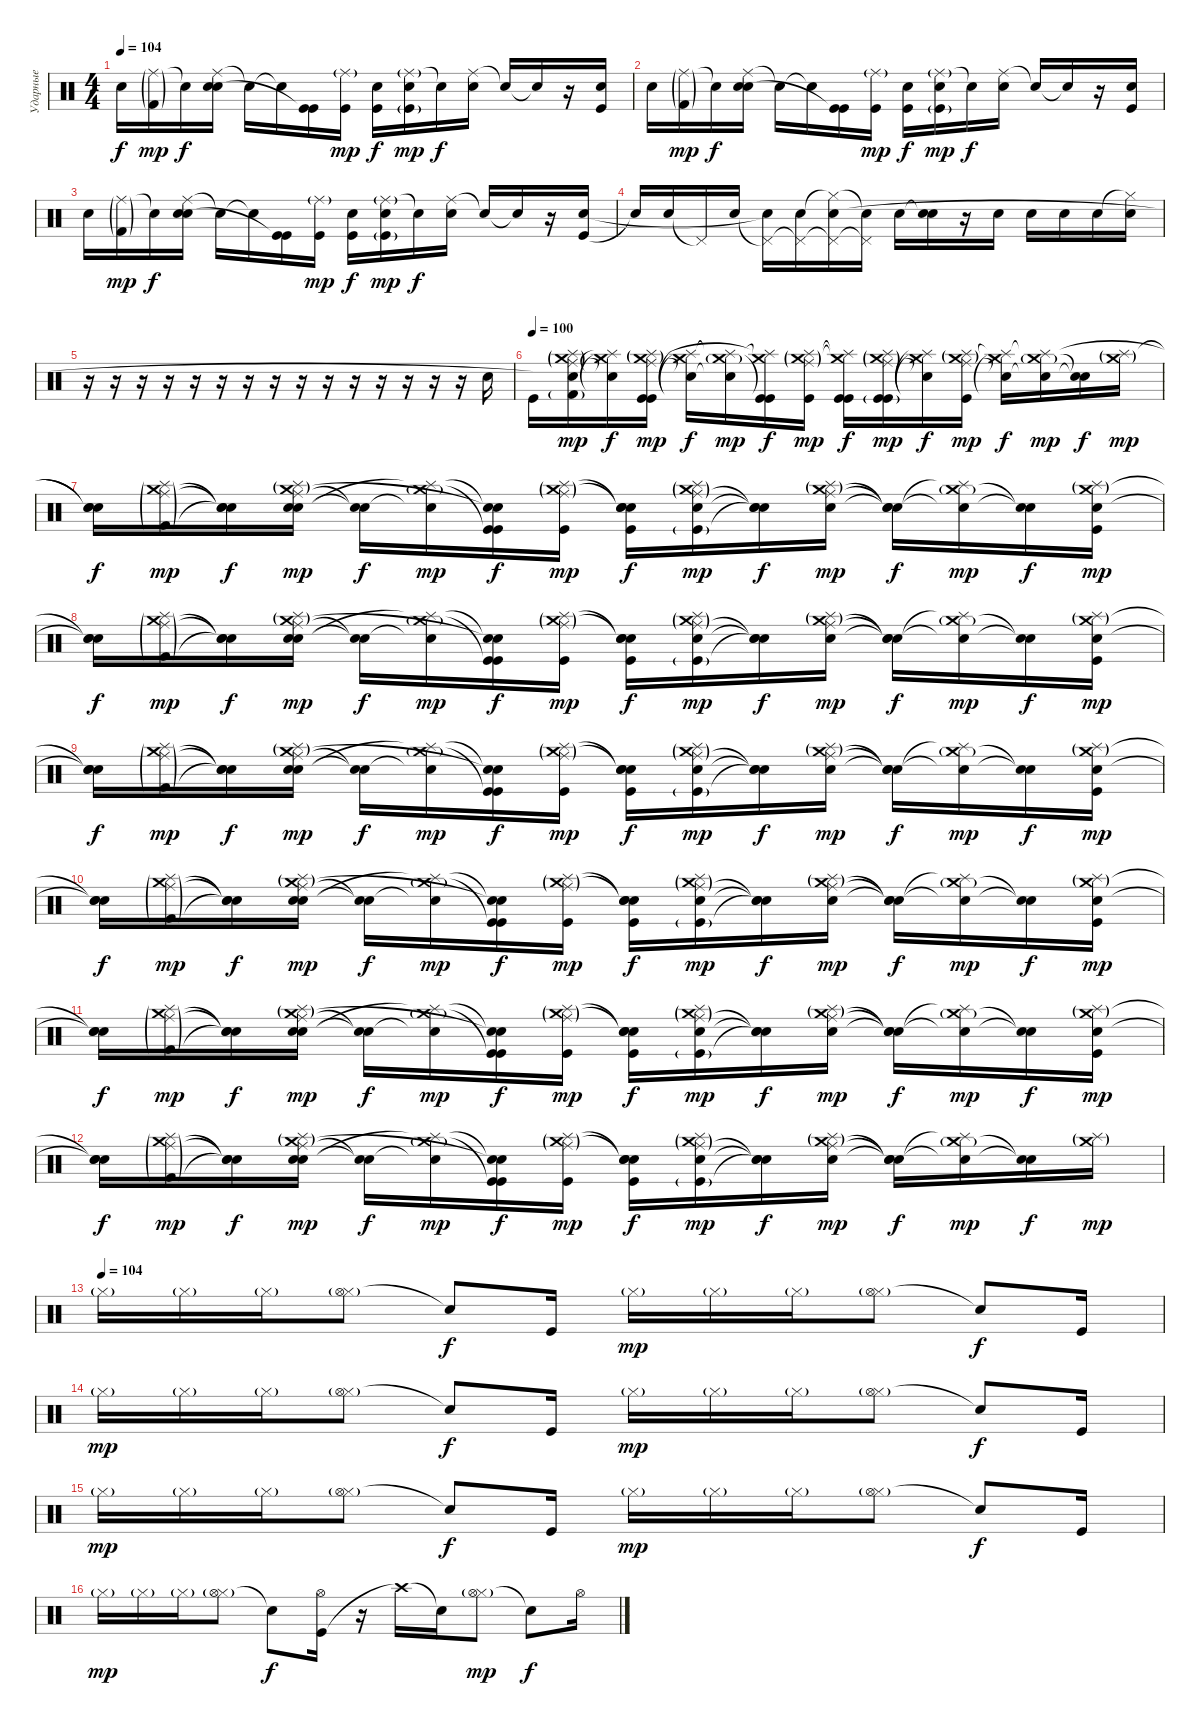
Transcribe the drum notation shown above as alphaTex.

\track ("Ударные" "Ударные") {instrument percussion}
\staff {score}
\articulation defaults
\ts (4 4)
\tempo 104
\clef neutral
\ks c "Snare (hit) 2".16{dy f}
("Ride (middle)"{g} "Kick (hit) 2"{g}).16{dy mp} "Electric Snare (hit)"{t}.16{dy f} ("Ride (middle)" "Snare (hit) 2" "Snare (hit) 2").16 "Electric Snare (hit)"{t}.16 "Electric Snare (hit)"{t}.16 ("Kick (hit)" "Kick (hit)"{t}).16 ("Ride (middle)"{g} "Kick (hit)").16{dy mp} ("Snare (hit) 2" "Kick (hit)").16{dy f} ("Ride (middle)"{g} "Snare (hit) 2" "Kick (hit)"{g}).16{dy mp} "Electric Snare (hit)"{t}.16{dy f} ("Ride (middle)" "Snare (hit) 2").16 "Electric Snare (hit)"{t}.16 "Electric Snare (hit)"{t}.16 r.16 ("Kick (hit)" "Snare (hit) 2").16 |
"Snare (hit) 2".16 ("Ride (middle)"{g} "Kick (hit) 2"{g}).16{dy mp} "Electric Snare (hit)"{t}.16{dy f} ("Ride (middle)" "Snare (hit) 2" "Snare (hit) 2").16 "Electric Snare (hit)"{t}.16 "Electric Snare (hit)"{t}.16 ("Kick (hit)" "Kick (hit)"{t}).16 ("Ride (middle)"{g} "Kick (hit)").16{dy mp} ("Snare (hit) 2" "Kick (hit)").16{dy f} ("Ride (middle)"{g} "Snare (hit) 2" "Kick (hit)"{g}).16{dy mp} "Electric Snare (hit)"{t}.16{dy f} ("Ride (middle)" "Snare (hit) 2").16 "Electric Snare (hit)"{t}.16 "Electric Snare (hit)"{t}.16 r.16 ("Kick (hit)" "Snare (hit) 2").16 |
"Snare (hit) 2".16 ("Ride (middle)"{g} "Kick (hit) 2"{g}).16{dy mp} "Electric Snare (hit)"{t}.16{dy f} ("Ride (middle)" "Snare (hit) 2" "Snare (hit) 2").16 "Electric Snare (hit)"{t}.16 "Electric Snare (hit)"{t}.16 ("Kick (hit)" "Kick (hit)"{t}).16 ("Ride (middle)"{g} "Kick (hit)").16{dy mp} ("Snare (hit) 2" "Kick (hit)").16{dy f} ("Ride (middle)"{g} "Snare (hit) 2" "Kick (hit)"{g}).16{dy mp} "Electric Snare (hit)"{t}.16{dy f} ("Ride (middle)" "Snare (hit) 2").16 "Electric Snare (hit)"{t}.16 "Electric Snare (hit)"{t}.16 r.16 ("Kick (hit)" "Snare (hit) 2").16 |
"Snare (hit)"{t}.16 "Snare (hit) 2".16 "Pedal Hi-Hat (hit)"{t}.16 "Snare (hit) 2".16 ("Pedal Hi-Hat (hit)"{t} "Snare (hit) 2"{t}).16 ("Pedal Hi-Hat (hit)"{t} "Electric Snare (hit)").16 ("Pedal Hi-Hat (hit)"{t} "Hi-Hat (closed)"{t} "Snare (hit) 2").16 ("Pedal Hi-Hat (hit)"{t} "Snare (hit)"{t}).16 "Electric Snare (hit)".16 ("Snare (hit)"{t} "Snare (hit) 2").16 r.16 "Electric Snare (hit)".16 "Electric Snare (hit)".16 "Snare (hit) 2".16 "Snare (hit) 2".16 ("Hi-Hat (closed)"{t} "Snare (hit) 2").16 |
r.16 r.16 r.16 r.16 r.16 r.16 r.16 r.16 r.16 r.16 r.16 r.16 r.16 r.16 r.16 "Snare (hit) 2".16 |
\tempo (100)
"Kick (hit)".16 ("Ride (middle)"{g} "Kick (hit) 2"{g} "Snare (hit)"{t} "Crash medium (hit)"{g} "Splash (hit)"{g}).16{dy mp} ("Electric Snare (hit)"{t} "Crash medium (hit)"{t} "Splash (hit)"{t}).16{dy f} ("Ride (middle)" "Kick (hit)" "Kick (hit)" "Crash medium (hit)"{g} "Splash (hit)"{g}).16{dy mp} ("Electric Snare (hit)"{t} "Crash medium (hit)"{t} "Splash (hit)"{t}).16{dy f} ("Electric Snare (hit)"{t} "Crash medium (hit)"{g} "Splash (hit)"{t}).16{dy mp} ("Kick (hit)" "Kick (hit)"{t} "Crash medium (hit)"{t} "Splash (hit)"{t}).16{dy f} ("Ride (middle)"{g} "Kick (hit)" "Crash medium (hit)"{g} "Splash (hit)"{g}).16{dy mp} ("Kick (hit)" "Kick (hit)" "Crash medium (hit)"{t} "Splash (hit)"{t}).16{dy f} ("Ride (middle)"{g} "Kick (hit)" "Kick (hit)"{g} "Crash medium (hit)"{g} "Splash (hit)"{g}).16{dy mp} ("Electric Snare (hit)"{t} "Crash medium (hit)"{t} "Splash (hit)"{t}).16{dy f} ("Ride (middle)" "Kick (hit)" "Crash medium (hit)"{g} "Splash (hit)"{g}).16{dy mp} ("Electric Snare (hit)"{t} "Crash medium (hit)"{t} "Splash (hit)"{t}).16{dy f} ("Electric Snare (hit)"{t} "Crash medium (hit)"{g} "Splash (hit)"{t}).16{dy mp} ("Snare (hit)"{t} "Snare (hit)"{t}).16{dy f} ("Crash medium (hit)"{g} "Splash (hit)"{g}).16{dy mp} |
("Snare (hit) 2" "Snare (hit)"{t} "Snare (hit)"{t}).16{dy f} ("Ride (middle)"{g} "Kick (hit) 2"{g} "Crash medium (hit)"{g} "Splash (hit)"{g}).16{dy mp} ("Electric Snare (hit)"{t} "Snare (hit)"{t} "Snare (hit)"{t}).16{dy f} ("Ride (middle)" "Snare (hit) 2" "Snare (hit) 2" "Crash medium (hit)"{g} "Splash (hit)"{g}).16{dy mp} ("Electric Snare (hit)"{t} "Snare (hit)"{t}).16{dy f} ("Electric Snare (hit)"{t} "Crash medium (hit)"{g} "Splash (hit)"{t}).16{dy mp} ("Kick (hit)" "Kick (hit)"{t} "Snare (hit)"{t} "Snare (hit)"{t}).16{dy f} ("Ride (middle)"{g} "Kick (hit)" "Crash medium (hit)"{g} "Splash (hit)"{g}).16{dy mp} ("Snare (hit) 2" "Kick (hit)" "Snare (hit)"{t} "Snare (hit)"{t}).16{dy f} ("Ride (middle)"{g} "Snare (hit) 2" "Kick (hit)"{g} "Crash medium (hit)"{g} "Splash (hit)"{g}).16{dy mp} ("Electric Snare (hit)"{t} "Snare (hit)"{t} "Snare (hit)"{t}).16{dy f} ("Ride (middle)" "Snare (hit) 2" "Crash medium (hit)"{g} "Splash (hit)"{g}).16{dy mp} ("Electric Snare (hit)"{t} "Snare (hit)"{t} "Snare (hit)"{t}).16{dy f} ("Electric Snare (hit)"{t} "Crash medium (hit)"{g} "Splash (hit)"{t}).16{dy mp} ("Snare (hit)"{t} "Snare (hit)"{t}).16{dy f} ("Kick (hit)" "Snare (hit) 2" "Crash medium (hit)"{g} "Splash (hit)"{g}).16{dy mp} |
("Snare (hit) 2" "Snare (hit)"{t} "Snare (hit)"{t}).16{dy f} ("Ride (middle)"{g} "Kick (hit) 2"{g} "Crash medium (hit)"{g} "Splash (hit)"{g}).16{dy mp} ("Electric Snare (hit)"{t} "Snare (hit)"{t} "Snare (hit)"{t}).16{dy f} ("Ride (middle)" "Snare (hit) 2" "Snare (hit) 2" "Crash medium (hit)"{g} "Splash (hit)"{g}).16{dy mp} ("Electric Snare (hit)"{t} "Snare (hit)"{t}).16{dy f} ("Electric Snare (hit)"{t} "Crash medium (hit)"{g} "Splash (hit)"{t}).16{dy mp} ("Kick (hit)" "Kick (hit)"{t} "Snare (hit)"{t} "Snare (hit)"{t}).16{dy f} ("Ride (middle)"{g} "Kick (hit)" "Crash medium (hit)"{g} "Splash (hit)"{g}).16{dy mp} ("Snare (hit) 2" "Kick (hit)" "Snare (hit)"{t} "Snare (hit)"{t}).16{dy f} ("Ride (middle)"{g} "Snare (hit) 2" "Kick (hit)"{g} "Crash medium (hit)"{g} "Splash (hit)"{g}).16{dy mp} ("Electric Snare (hit)"{t} "Snare (hit)"{t} "Snare (hit)"{t}).16{dy f} ("Ride (middle)" "Snare (hit) 2" "Crash medium (hit)"{g} "Splash (hit)"{g}).16{dy mp} ("Electric Snare (hit)"{t} "Snare (hit)"{t} "Snare (hit)"{t}).16{dy f} ("Electric Snare (hit)"{t} "Crash medium (hit)"{g} "Splash (hit)"{t}).16{dy mp} ("Snare (hit)"{t} "Snare (hit)"{t}).16{dy f} ("Kick (hit)" "Snare (hit) 2" "Crash medium (hit)"{g} "Splash (hit)"{g}).16{dy mp} |
("Snare (hit) 2" "Snare (hit)"{t} "Snare (hit)"{t}).16{dy f} ("Ride (middle)"{g} "Kick (hit) 2"{g} "Crash medium (hit)"{g} "Splash (hit)"{g}).16{dy mp} ("Electric Snare (hit)"{t} "Snare (hit)"{t} "Snare (hit)"{t}).16{dy f} ("Ride (middle)" "Snare (hit) 2" "Snare (hit) 2" "Crash medium (hit)"{g} "Splash (hit)"{g}).16{dy mp} ("Electric Snare (hit)"{t} "Snare (hit)"{t}).16{dy f} ("Electric Snare (hit)"{t} "Crash medium (hit)"{g} "Splash (hit)"{t}).16{dy mp} ("Kick (hit)" "Kick (hit)"{t} "Snare (hit)"{t} "Snare (hit)"{t}).16{dy f} ("Ride (middle)"{g} "Kick (hit)" "Crash medium (hit)"{g} "Splash (hit)"{g}).16{dy mp} ("Snare (hit) 2" "Kick (hit)" "Snare (hit)"{t} "Snare (hit)"{t}).16{dy f} ("Ride (middle)"{g} "Snare (hit) 2" "Kick (hit)"{g} "Crash medium (hit)"{g} "Splash (hit)"{g}).16{dy mp} ("Electric Snare (hit)"{t} "Snare (hit)"{t} "Snare (hit)"{t}).16{dy f} ("Ride (middle)" "Snare (hit) 2" "Crash medium (hit)"{g} "Splash (hit)"{g}).16{dy mp} ("Electric Snare (hit)"{t} "Snare (hit)"{t} "Snare (hit)"{t}).16{dy f} ("Electric Snare (hit)"{t} "Crash medium (hit)"{g} "Splash (hit)"{t}).16{dy mp} ("Snare (hit)"{t} "Snare (hit)"{t}).16{dy f} ("Kick (hit)" "Snare (hit) 2" "Crash medium (hit)"{g} "Splash (hit)"{g}).16{dy mp} |
("Snare (hit) 2" "Snare (hit)"{t} "Snare (hit)"{t}).16{dy f} ("Ride (middle)"{g} "Kick (hit) 2"{g} "Crash medium (hit)"{g} "Splash (hit)"{g}).16{dy mp} ("Electric Snare (hit)"{t} "Snare (hit)"{t} "Snare (hit)"{t}).16{dy f} ("Ride (middle)" "Snare (hit) 2" "Snare (hit) 2" "Crash medium (hit)"{g} "Splash (hit)"{g}).16{dy mp} ("Electric Snare (hit)"{t} "Snare (hit)"{t}).16{dy f} ("Electric Snare (hit)"{t} "Crash medium (hit)"{g} "Splash (hit)"{t}).16{dy mp} ("Kick (hit)" "Kick (hit)"{t} "Snare (hit)"{t} "Snare (hit)"{t}).16{dy f} ("Ride (middle)"{g} "Kick (hit)" "Crash medium (hit)"{g} "Splash (hit)"{g}).16{dy mp} ("Snare (hit) 2" "Kick (hit)" "Snare (hit)"{t} "Snare (hit)"{t}).16{dy f} ("Ride (middle)"{g} "Snare (hit) 2" "Kick (hit)"{g} "Crash medium (hit)"{g} "Splash (hit)"{g}).16{dy mp} ("Electric Snare (hit)"{t} "Snare (hit)"{t} "Snare (hit)"{t}).16{dy f} ("Ride (middle)" "Snare (hit) 2" "Crash medium (hit)"{g} "Splash (hit)"{g}).16{dy mp} ("Electric Snare (hit)"{t} "Snare (hit)"{t} "Snare (hit)"{t}).16{dy f} ("Electric Snare (hit)"{t} "Crash medium (hit)"{g} "Splash (hit)"{t}).16{dy mp} ("Snare (hit)"{t} "Snare (hit)"{t}).16{dy f} ("Kick (hit)" "Snare (hit) 2" "Crash medium (hit)"{g} "Splash (hit)"{g}).16{dy mp} |
("Snare (hit) 2" "Snare (hit)"{t} "Snare (hit)"{t}).16{dy f} ("Ride (middle)"{g} "Kick (hit) 2"{g} "Crash medium (hit)"{g} "Splash (hit)"{g}).16{dy mp} ("Electric Snare (hit)"{t} "Snare (hit)"{t} "Snare (hit)"{t}).16{dy f} ("Ride (middle)" "Snare (hit) 2" "Snare (hit) 2" "Crash medium (hit)"{g} "Splash (hit)"{g}).16{dy mp} ("Electric Snare (hit)"{t} "Snare (hit)"{t}).16{dy f} ("Electric Snare (hit)"{t} "Crash medium (hit)"{g} "Splash (hit)"{t}).16{dy mp} ("Kick (hit)" "Kick (hit)"{t} "Snare (hit)"{t} "Snare (hit)"{t}).16{dy f} ("Ride (middle)"{g} "Kick (hit)" "Crash medium (hit)"{g} "Splash (hit)"{g}).16{dy mp} ("Snare (hit) 2" "Kick (hit)" "Snare (hit)"{t} "Snare (hit)"{t}).16{dy f} ("Ride (middle)"{g} "Snare (hit) 2" "Kick (hit)"{g} "Crash medium (hit)"{g} "Splash (hit)"{g}).16{dy mp} ("Electric Snare (hit)"{t} "Snare (hit)"{t} "Snare (hit)"{t}).16{dy f} ("Ride (middle)" "Snare (hit) 2" "Crash medium (hit)"{g} "Splash (hit)"{g}).16{dy mp} ("Electric Snare (hit)"{t} "Snare (hit)"{t} "Snare (hit)"{t}).16{dy f} ("Electric Snare (hit)"{t} "Crash medium (hit)"{g} "Splash (hit)"{t}).16{dy mp} ("Snare (hit)"{t} "Snare (hit)"{t}).16{dy f} ("Kick (hit)" "Snare (hit) 2" "Crash medium (hit)"{g} "Splash (hit)"{g}).16{dy mp} |
("Snare (hit) 2" "Snare (hit)"{t} "Snare (hit)"{t}).16{dy f} ("Ride (middle)"{g} "Kick (hit) 2"{g} "Crash medium (hit)"{g} "Splash (hit)"{g}).16{dy mp} ("Electric Snare (hit)"{t} "Snare (hit)"{t} "Snare (hit)"{t}).16{dy f} ("Ride (middle)" "Snare (hit) 2" "Snare (hit) 2" "Crash medium (hit)"{g} "Splash (hit)"{g}).16{dy mp} ("Electric Snare (hit)"{t} "Snare (hit)"{t}).16{dy f} ("Electric Snare (hit)"{t} "Crash medium (hit)"{g} "Splash (hit)"{t}).16{dy mp} ("Kick (hit)" "Kick (hit)"{t} "Snare (hit)"{t} "Snare (hit)"{t}).16{dy f} ("Ride (middle)"{g} "Kick (hit)" "Crash medium (hit)"{g} "Splash (hit)"{g}).16{dy mp} ("Snare (hit) 2" "Kick (hit)" "Snare (hit)"{t} "Snare (hit)"{t}).16{dy f} ("Ride (middle)"{g} "Snare (hit) 2" "Kick (hit)"{g} "Crash medium (hit)"{g} "Splash (hit)"{g}).16{dy mp} ("Electric Snare (hit)"{t} "Snare (hit)"{t} "Snare (hit)"{t}).16{dy f} ("Ride (middle)" "Snare (hit) 2" "Crash medium (hit)"{g} "Splash (hit)"{g}).16{dy mp} ("Electric Snare (hit)"{t} "Snare (hit)"{t} "Snare (hit)"{t}).16{dy f} ("Electric Snare (hit)"{t} "Crash medium (hit)"{g} "Splash (hit)"{t}).16{dy mp} ("Snare (hit)"{t} "Snare (hit)"{t}).16{dy f} ("Crash medium (hit)"{g} "Splash (hit)"{g}).16{dy mp} |
\tempo (104)
"Hi-Hat (closed)"{g}.16 "Hi-Hat (closed)"{g}.16 "Hi-Hat (closed)"{g}.16 ("Hi-Hat (closed)"{g} "Hi-Hat (open)").8 "Snare (hit)"{t}.8{dy f} "Kick (hit)".16 "Hi-Hat (closed)"{g}.16{dy mp} "Hi-Hat (closed)"{g}.16 "Hi-Hat (closed)"{g}.16 ("Hi-Hat (closed)"{g} "Hi-Hat (open)").8 "Snare (hit)"{t}.8{dy f} "Kick (hit)".16 |
"Hi-Hat (closed)"{g}.16{dy mp} "Hi-Hat (closed)"{g}.16 "Hi-Hat (closed)"{g}.16 ("Hi-Hat (closed)"{g} "Hi-Hat (open)").8 "Snare (hit)"{t}.8{dy f} "Kick (hit)".16 "Hi-Hat (closed)"{g}.16{dy mp} "Hi-Hat (closed)"{g}.16 "Hi-Hat (closed)"{g}.16 ("Hi-Hat (closed)"{g} "Hi-Hat (open)").8 "Snare (hit)"{t}.8{dy f} "Kick (hit)".16 |
"Hi-Hat (closed)"{g}.16{dy mp} "Hi-Hat (closed)"{g}.16 "Hi-Hat (closed)"{g}.16 ("Hi-Hat (closed)"{g} "Hi-Hat (open)").8 "Snare (hit)"{t}.8{dy f} "Kick (hit)".16 "Hi-Hat (closed)"{g}.16{dy mp} "Hi-Hat (closed)"{g}.16 "Hi-Hat (closed)"{g}.16 ("Hi-Hat (closed)"{g} "Hi-Hat (open)").8 "Snare (hit)"{t}.8{dy f} "Kick (hit)".16 |
"Hi-Hat (closed)"{g}.16{dy mp} "Hi-Hat (closed)"{g}.16 "Hi-Hat (closed)"{g}.16 ("Hi-Hat (closed)"{g} "Hi-Hat (open)").8 "Snare (hit)"{t}.8{dy f} ("Kick (hit)" "Hi-Hat (open)").16 r.16 "Crash high (hit)"{t}.16 "Snare (hit)"{t}.16 ("Hi-Hat (closed)"{g} "Hi-Hat (open)").8{dy mp} "Snare (hit)"{t}.8{dy f} "Hi-Hat (open)".16
